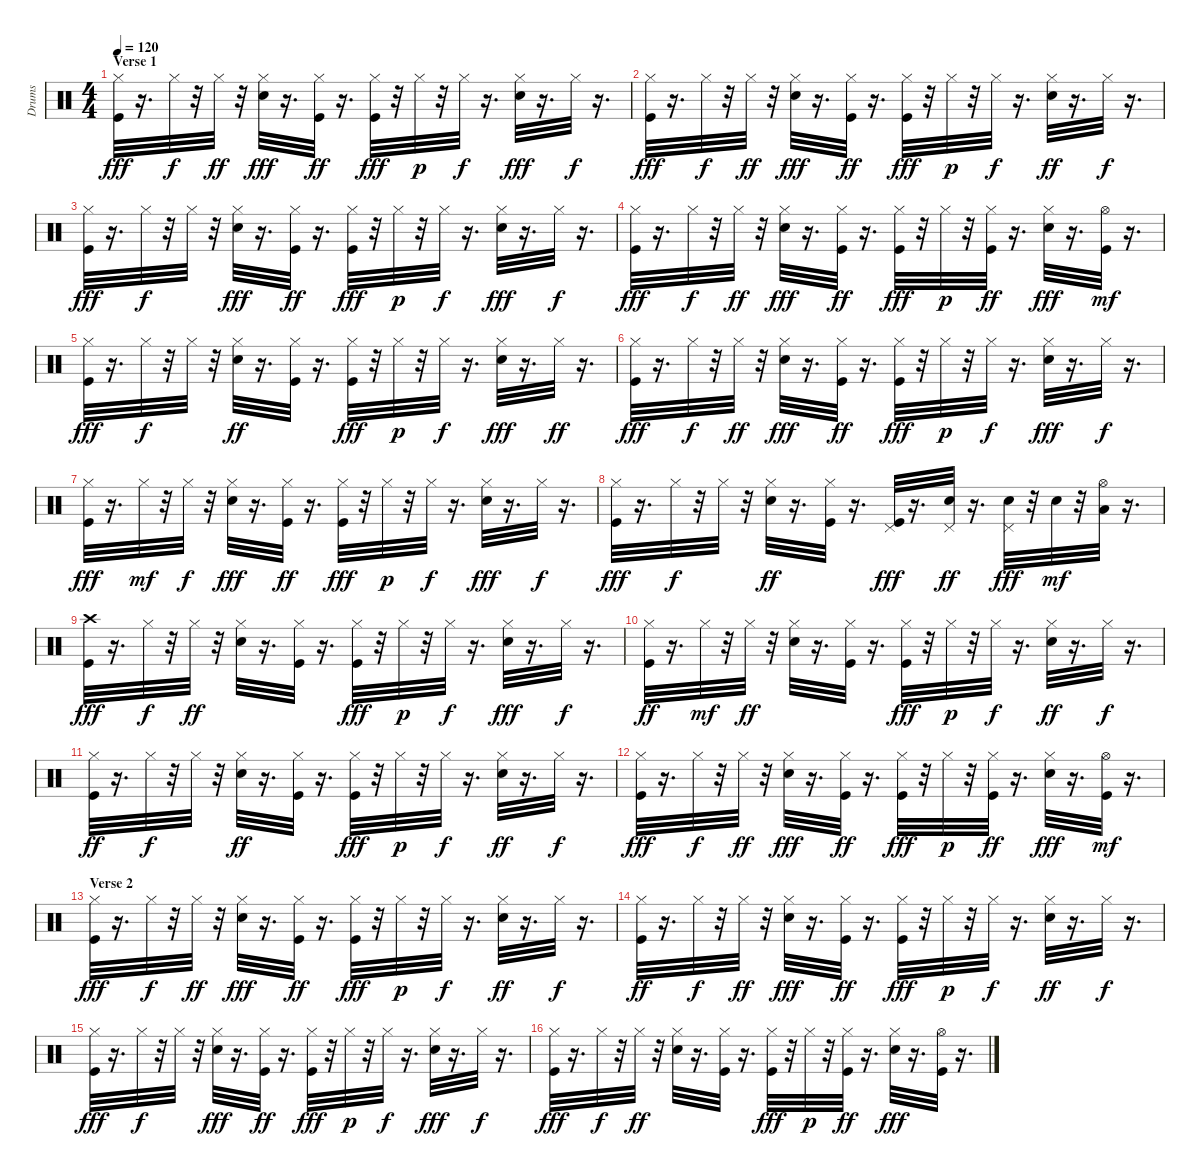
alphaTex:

\track ("Drums" "Drums") {instrument percussion}
\staff {score}
\articulation defaults
\ts (4 4)
\section ("" "Verse 1")
\tempo 120
\clef neutral
\ks c
("Hi-Hat (closed)" "Kick (hit)").32{dy fff} r.16{d} "Hi-Hat (closed)".32{dy f} r.32 "Hi-Hat (closed)".32{dy ff} r.32 ("Hi-Hat (closed)" "Electric Snare (hit)").32{dy fff} r.16{d} ("Kick (hit)" "Hi-Hat (closed)").32{dy ff} r.16{d} ("Hi-Hat (closed)" "Kick (hit)").32{dy fff} r.32 "Hi-Hat (closed)".32{dy p} r.32 "Hi-Hat (closed)".32{dy f} r.16{d} ("Hi-Hat (closed)" "Electric Snare (hit)").32{dy fff} r.16{d} "Hi-Hat (closed)".32{dy f} r.16{d} |
("Hi-Hat (closed)" "Kick (hit)").32{dy fff} r.16{d} "Hi-Hat (closed)".32{dy f} r.32 "Hi-Hat (closed)".32{dy ff} r.32 ("Hi-Hat (closed)" "Electric Snare (hit)").32{dy fff} r.16{d} ("Hi-Hat (closed)" "Kick (hit)").32{dy ff} r.16{d} ("Hi-Hat (closed)" "Kick (hit)").32{dy fff} r.32 "Hi-Hat (closed)".32{dy p} r.32 "Hi-Hat (closed)".32{dy f} r.16{d} ("Electric Snare (hit)" "Hi-Hat (closed)").32{dy ff} r.16{d} "Hi-Hat (closed)".32{dy f} r.16{d} |
("Hi-Hat (closed)" "Kick (hit)").32{dy fff} r.16{d} "Hi-Hat (closed)".32{dy f} r.32 "Hi-Hat (closed)".32 r.32 ("Hi-Hat (closed)" "Electric Snare (hit)").32{dy fff} r.16{d} ("Hi-Hat (closed)" "Kick (hit)").32{dy ff} r.16{d} ("Hi-Hat (closed)" "Kick (hit)").32{dy fff} r.32 "Hi-Hat (closed)".32{dy p} r.32 "Hi-Hat (closed)".32{dy f} r.16{d} ("Hi-Hat (closed)" "Electric Snare (hit)").32{dy fff} r.16{d} "Hi-Hat (closed)".32{dy f} r.16{d} |
("Hi-Hat (closed)" "Kick (hit)").32{dy fff} r.16{d} "Hi-Hat (closed)".32{dy f} r.32 "Hi-Hat (closed)".32{dy ff} r.32 ("Hi-Hat (closed)" "Electric Snare (hit)").32{dy fff} r.16{d} ("Hi-Hat (closed)" "Kick (hit)").32{dy ff} r.16{d} ("Kick (hit)" "Hi-Hat (closed)").32{dy fff} r.32 "Hi-Hat (closed)".32{dy p} r.32 ("Hi-Hat (closed)" "Kick (hit)").32{dy ff} r.16{d} ("Hi-Hat (closed)" "Electric Snare (hit)").32{dy fff} r.16{d} ("Kick (hit)" "Hi-Hat (open)").32{dy mf} r.16{d} |
("Hi-Hat (closed)" "Kick (hit)").32{dy fff} r.16{d} "Hi-Hat (closed)".32{dy f} r.32 "Hi-Hat (closed)".32 r.32 ("Electric Snare (hit)" "Hi-Hat (closed)").32{dy ff} r.16{d} ("Hi-Hat (closed)" "Kick (hit)").32 r.16{d} ("Hi-Hat (closed)" "Kick (hit)").32{dy fff} r.32 "Hi-Hat (closed)".32{dy p} r.32 "Hi-Hat (closed)".32{dy f} r.16{d} ("Hi-Hat (closed)" "Electric Snare (hit)").32{dy fff} r.16{d} "Hi-Hat (closed)".32{dy ff} r.16{d} |
("Hi-Hat (closed)" "Kick (hit)").32{dy fff} r.16{d} "Hi-Hat (closed)".32{dy f} r.32 "Hi-Hat (closed)".32{dy ff} r.32 ("Hi-Hat (closed)" "Electric Snare (hit)").32{dy fff} r.16{d} ("Hi-Hat (closed)" "Kick (hit)").32{dy ff} r.16{d} ("Kick (hit)" "Hi-Hat (closed)").32{dy fff} r.32 "Hi-Hat (closed)".32{dy p} r.32 "Hi-Hat (closed)".32{dy f} r.16{d} ("Hi-Hat (closed)" "Electric Snare (hit)").32{dy fff} r.16{d} "Hi-Hat (closed)".32{dy f} r.16{d} |
("Hi-Hat (closed)" "Kick (hit)").32{dy fff} r.16{d} "Hi-Hat (closed)".32{dy mf} r.32 "Hi-Hat (closed)".32{dy f} r.32 ("Hi-Hat (closed)" "Electric Snare (hit)").32{dy fff} r.16{d} ("Kick (hit)" "Hi-Hat (closed)").32{dy ff} r.16{d} ("Kick (hit)" "Hi-Hat (closed)").32{dy fff} r.32 "Hi-Hat (closed)".32{dy p} r.32 "Hi-Hat (closed)".32{dy f} r.16{d} ("Hi-Hat (closed)" "Electric Snare (hit)").32{dy fff} r.16{d} "Hi-Hat (closed)".32{dy f} r.16{d} |
("Hi-Hat (closed)" "Kick (hit)").32{dy fff} r.16{d} "Hi-Hat (closed)".32{dy f} r.32 "Hi-Hat (closed)".32 r.32 ("Electric Snare (hit)" "Hi-Hat (closed)").32{dy ff} r.16{d} ("Hi-Hat (closed)" "Kick (hit)").32 r.16{d} ("Pedal Hi-Hat (hit)" "Kick (hit)").32{dy fff} r.16{d} ("Pedal Hi-Hat (hit)" "Electric Snare (hit)").32{dy ff} r.16{d} ("Pedal Hi-Hat (hit)" "Electric Snare (hit)").32{dy fff} r.32 "Electric Snare (hit)".32{dy mf} r.32 ("Hi-Hat (open)" "Low Tom (hit)").32 r.16{d} |
("Crash high (hit)" "Kick (hit)").32{dy fff} r.16{d} "Hi-Hat (closed)".32{dy f} r.32 "Hi-Hat (closed)".32{dy ff} r.32 ("Electric Snare (hit)" "Hi-Hat (closed)").32 r.16{d} ("Kick (hit)" "Hi-Hat (closed)").32 r.16{d} ("Hi-Hat (closed)" "Kick (hit)").32{dy fff} r.32 "Hi-Hat (closed)".32{dy p} r.32 "Hi-Hat (closed)".32{dy f} r.16{d} ("Hi-Hat (closed)" "Electric Snare (hit)").32{dy fff} r.16{d} "Hi-Hat (closed)".32{dy f} r.16{d} |
("Kick (hit)" "Hi-Hat (closed)").32{dy ff} r.16{d} "Hi-Hat (closed)".32{dy mf} r.32 "Hi-Hat (closed)".32{dy ff} r.32 ("Electric Snare (hit)" "Hi-Hat (closed)").32 r.16{d} ("Kick (hit)" "Hi-Hat (closed)").32 r.16{d} ("Hi-Hat (closed)" "Kick (hit)").32{dy fff} r.32 "Hi-Hat (closed)".32{dy p} r.32 "Hi-Hat (closed)".32{dy f} r.16{d} ("Electric Snare (hit)" "Hi-Hat (closed)").32{dy ff} r.16{d} "Hi-Hat (closed)".32{dy f} r.16{d} |
("Kick (hit)" "Hi-Hat (closed)").32{dy ff} r.16{d} "Hi-Hat (closed)".32{dy f} r.32 "Hi-Hat (closed)".32 r.32 ("Electric Snare (hit)" "Hi-Hat (closed)").32{dy ff} r.16{d} ("Kick (hit)" "Hi-Hat (closed)").32 r.16{d} ("Kick (hit)" "Hi-Hat (closed)").32{dy fff} r.32 "Hi-Hat (closed)".32{dy p} r.32 "Hi-Hat (closed)".32{dy f} r.16{d} ("Electric Snare (hit)" "Hi-Hat (closed)").32{dy ff} r.16{d} "Hi-Hat (closed)".32{dy f} r.16{d} |
("Hi-Hat (closed)" "Kick (hit)").32{dy fff} r.16{d} "Hi-Hat (closed)".32{dy f} r.32 "Hi-Hat (closed)".32{dy ff} r.32 ("Hi-Hat (closed)" "Electric Snare (hit)").32{dy fff} r.16{d} ("Kick (hit)" "Hi-Hat (closed)").32{dy ff} r.16{d} ("Hi-Hat (closed)" "Kick (hit)").32{dy fff} r.32 "Hi-Hat (closed)".32{dy p} r.32 ("Kick (hit)" "Hi-Hat (closed)").32{dy ff} r.16{d} ("Hi-Hat (closed)" "Electric Snare (hit)").32{dy fff} r.16{d} ("Kick (hit)" "Hi-Hat (open)").32{dy mf} r.16{d} |
\section ("" "Verse 2")
("Hi-Hat (closed)" "Kick (hit)").32{dy fff} r.16{d} "Hi-Hat (closed)".32{dy f} r.32 "Hi-Hat (closed)".32{dy ff} r.32 ("Hi-Hat (closed)" "Electric Snare (hit)").32{dy fff} r.16{d} ("Hi-Hat (closed)" "Kick (hit)").32{dy ff} r.16{d} ("Hi-Hat (closed)" "Kick (hit)").32{dy fff} r.32 "Hi-Hat (closed)".32{dy p} r.32 "Hi-Hat (closed)".32{dy f} r.16{d} ("Electric Snare (hit)" "Hi-Hat (closed)").32{dy ff} r.16{d} "Hi-Hat (closed)".32{dy f} r.16{d} |
("Kick (hit)" "Hi-Hat (closed)").32{dy ff} r.16{d} "Hi-Hat (closed)".32{dy f} r.32 "Hi-Hat (closed)".32{dy ff} r.32 ("Hi-Hat (closed)" "Electric Snare (hit)").32{dy fff} r.16{d} ("Kick (hit)" "Hi-Hat (closed)").32{dy ff} r.16{d} ("Kick (hit)" "Hi-Hat (closed)").32{dy fff} r.32 "Hi-Hat (closed)".32{dy p} r.32 "Hi-Hat (closed)".32{dy f} r.16{d} ("Electric Snare (hit)" "Hi-Hat (closed)").32{dy ff} r.16{d} "Hi-Hat (closed)".32{dy f} r.16{d} |
("Hi-Hat (closed)" "Kick (hit)").32{dy fff} r.16{d} "Hi-Hat (closed)".32{dy f} r.32 "Hi-Hat (closed)".32 r.32 ("Hi-Hat (closed)" "Electric Snare (hit)").32{dy fff} r.16{d} ("Hi-Hat (closed)" "Kick (hit)").32{dy ff} r.16{d} ("Kick (hit)" "Hi-Hat (closed)").32{dy fff} r.32 "Hi-Hat (closed)".32{dy p} r.32 "Hi-Hat (closed)".32{dy f} r.16{d} ("Hi-Hat (closed)" "Electric Snare (hit)").32{dy fff} r.16{d} "Hi-Hat (closed)".32{dy f} r.16{d} |
("Hi-Hat (closed)" "Kick (hit)").32{dy fff} r.16{d} "Hi-Hat (closed)".32{dy f} r.32 "Hi-Hat (closed)".32{dy ff} r.32 ("Electric Snare (hit)" "Hi-Hat (closed)").32 r.16{d} ("Kick (hit)" "Hi-Hat (closed)").32 r.16{d} ("Kick (hit)" "Hi-Hat (closed)").32{dy fff} r.32 "Hi-Hat (closed)".32{dy p} r.32 ("Kick (hit)" "Hi-Hat (closed)").32{dy ff} r.16{d} ("Electric Snare (hit)" "Hi-Hat (closed)").32{dy fff} r.16{d} ("Hi-Hat (open)" "Kick (hit)").32 r.16{d}
